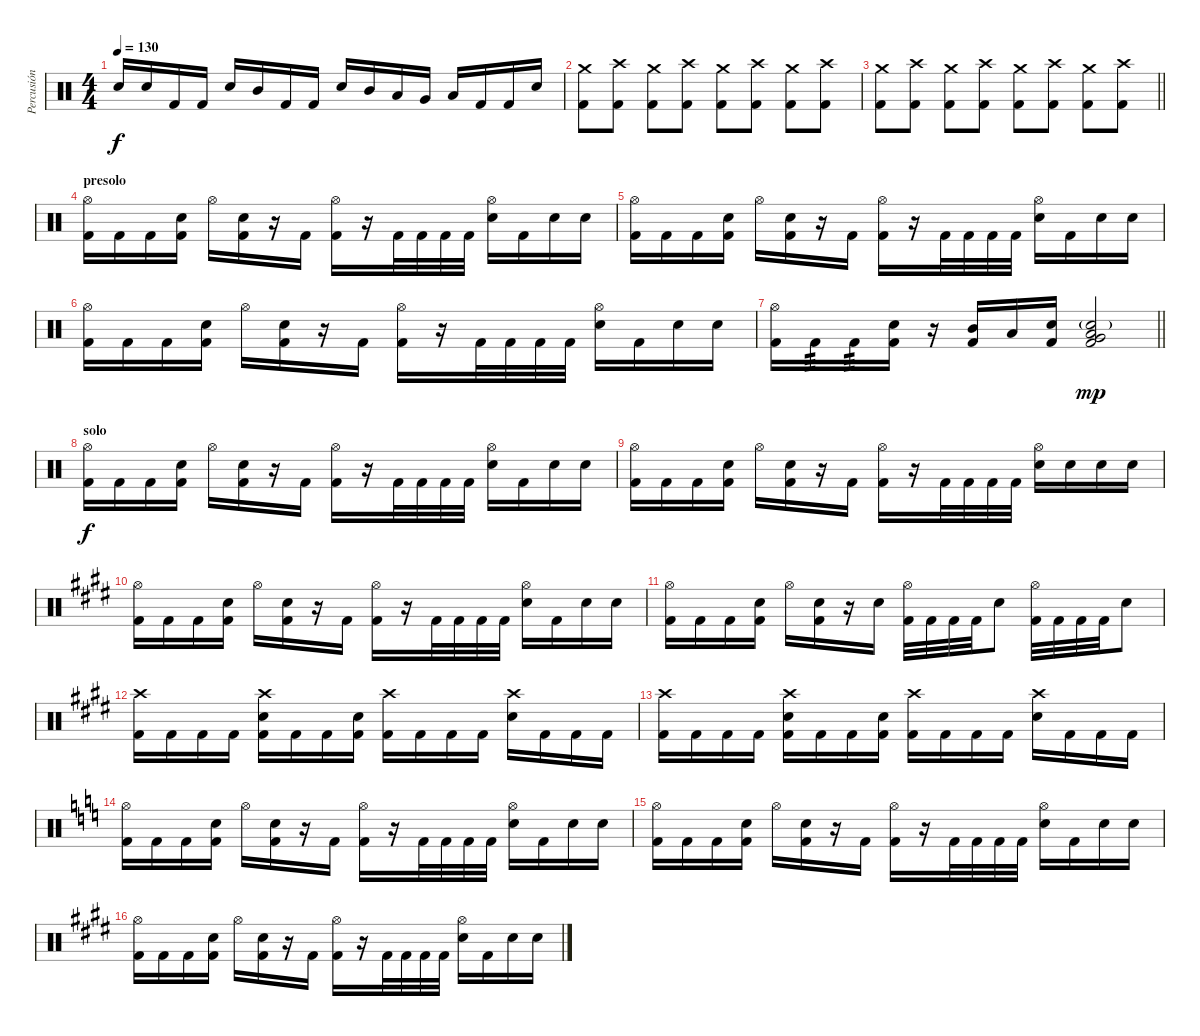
\track ("Percusión" "Percusión") {instrument percussion}
\staff {score}
\articulation defaults
\ts (4 4)
\tempo 130
\clef neutral
\ks c "Electric Snare (hit)".16{dy f} "Electric Snare (hit)".16 "Kick (hit) 2".16 "Kick (hit) 2".16 "Electric Snare (hit)".16 "Mid Tom (hit)".16 "Kick (hit) 2".16 "Kick (hit) 2".16 "Electric Snare (hit)".16 "Mid Tom (hit)".16 "Low Tom (hit)".16 "Very Low Tom (hit)".16 "Low Floor Tom (hit)".16 "Kick (hit) 2".16 "Kick (hit) 2".16 "Electric Snare (hit)".16
|
("Crash medium (hit)" "Kick (hit) 2").8 ("Crash high (hit)" "Kick (hit) 2").8 ("Crash medium (hit)" "Kick (hit) 2").8 ("Crash high (hit)" "Kick (hit) 2").8 ("Crash medium (hit)" "Kick (hit) 2").8 ("Crash high (hit)" "Kick (hit) 2").8 ("Crash medium (hit)" "Kick (hit) 2").8 ("Crash high (hit)" "Kick (hit) 2").8 |
\barLineRight lightlight
("Crash medium (hit)" "Kick (hit) 2").8 ("Crash high (hit)" "Kick (hit) 2").8 ("Crash medium (hit)" "Kick (hit) 2").8 ("Crash high (hit)" "Kick (hit) 2").8 ("Crash medium (hit)" "Kick (hit) 2").8 ("Crash high (hit)" "Kick (hit) 2").8 ("Crash medium (hit)" "Kick (hit) 2").8 ("Crash high (hit)" "Kick (hit) 2").8 |
\section ("" "presolo")
("Hi-Hat (open)" "Kick (hit) 2").16 "Kick (hit) 2".16 "Kick (hit) 2".16 ("Electric Snare (hit)" "Kick (hit) 2").16 "Hi-Hat (open)".16 ("Electric Snare (hit)" "Kick (hit) 2").16 r.16 "Kick (hit) 2".16 ("Hi-Hat (open)" "Kick (hit) 2").16 r.16 "Kick (hit) 2".32 "Kick (hit) 2".32 "Kick (hit) 2".32 "Kick (hit) 2".32 ("Hi-Hat (open)" "Electric Snare (hit)").16 "Kick (hit) 2".16 "Electric Snare (hit)".16 "Electric Snare (hit)".16 |
("Hi-Hat (open)" "Kick (hit) 2").16 "Kick (hit) 2".16 "Kick (hit) 2".16 ("Electric Snare (hit)" "Kick (hit) 2").16 "Hi-Hat (open)".16 ("Electric Snare (hit)" "Kick (hit) 2").16 r.16 "Kick (hit) 2".16 ("Hi-Hat (open)" "Kick (hit) 2").16 r.16 "Kick (hit) 2".32 "Kick (hit) 2".32 "Kick (hit) 2".32 "Kick (hit) 2".32 ("Hi-Hat (open)" "Electric Snare (hit)").16 "Kick (hit) 2".16 "Electric Snare (hit)".16 "Electric Snare (hit)".16 |
("Hi-Hat (open)" "Kick (hit) 2").16 "Kick (hit) 2".16 "Kick (hit) 2".16 ("Electric Snare (hit)" "Kick (hit) 2").16 "Hi-Hat (open)".16 ("Electric Snare (hit)" "Kick (hit) 2").16 r.16 "Kick (hit) 2".16 ("Hi-Hat (open)" "Kick (hit) 2").16 r.16 "Kick (hit) 2".32 "Kick (hit) 2".32 "Kick (hit) 2".32 "Kick (hit) 2".32 ("Hi-Hat (open)" "Electric Snare (hit)").16 "Kick (hit) 2".16 "Electric Snare (hit)".16 "Electric Snare (hit)".16 |
\barLineRight lightlight
("Hi-Hat (open)" "Kick (hit) 2").16 "Kick (hit) 2".16{tp 3} "Kick (hit) 2".16{tp 3} ("Electric Snare (hit)" "Kick (hit) 2").16 r.16 ("Mid Tom (hit)" "Kick (hit) 2").16 "Low Tom (hit)".16 ("Snare (hit)" "Kick (hit) 2").16 ("Electric Snare (hit)"{g} "Low Tom (hit)" "Kick (hit) 2" "Very Low Tom (hit)").2{dy mp} |
\section ("" "solo")
("Hi-Hat (open)" "Kick (hit) 2").16{dy f} "Kick (hit) 2".16 "Kick (hit) 2".16 ("Electric Snare (hit)" "Kick (hit) 2").16 "Hi-Hat (open)".16 ("Electric Snare (hit)" "Kick (hit) 2").16 r.16 "Kick (hit) 2".16 ("Hi-Hat (open)" "Kick (hit) 2").16 r.16 "Kick (hit) 2".32 "Kick (hit) 2".32 "Kick (hit) 2".32 "Kick (hit) 2".32 ("Hi-Hat (open)" "Electric Snare (hit)").16 "Kick (hit) 2".16 "Electric Snare (hit)".16 "Electric Snare (hit)".16 |
("Hi-Hat (open)" "Kick (hit) 2").16 "Kick (hit) 2".16 "Kick (hit) 2".16 ("Electric Snare (hit)" "Kick (hit) 2").16 "Hi-Hat (open)".16 ("Electric Snare (hit)" "Kick (hit) 2").16 r.16 "Kick (hit) 2".16 ("Hi-Hat (open)" "Kick (hit) 2").16 r.16 "Kick (hit) 2".32 "Kick (hit) 2".32 "Kick (hit) 2".32 "Kick (hit) 2".32 ("Hi-Hat (open)" "Electric Snare (hit)").16 "Electric Snare (hit)".16 "Electric Snare (hit)".16 "Electric Snare (hit)".16 |
\ks c#minor
("Hi-Hat (open)" "Kick (hit) 2").16 "Kick (hit) 2".16 "Kick (hit) 2".16 ("Electric Snare (hit)" "Kick (hit) 2").16 "Hi-Hat (open)".16 ("Electric Snare (hit)" "Kick (hit) 2").16 r.16 "Kick (hit) 2".16 ("Hi-Hat (open)" "Kick (hit) 2").16 r.16 "Kick (hit) 2".32 "Kick (hit) 2".32 "Kick (hit) 2".32 "Kick (hit) 2".32 ("Hi-Hat (open)" "Electric Snare (hit)").16 "Kick (hit) 2".16 "Electric Snare (hit)".16 "Electric Snare (hit)".16 |
("Hi-Hat (open)" "Kick (hit) 2").16 "Kick (hit) 2".16 "Kick (hit) 2".16 ("Electric Snare (hit)" "Kick (hit) 2").16 "Hi-Hat (open)".16 ("Electric Snare (hit)" "Kick (hit) 2").16 r.16 "Electric Snare (hit)".16 ("Hi-Hat (open)" "Kick (hit) 2").32 "Kick (hit) 2".32 "Kick (hit) 2".32 "Kick (hit) 2".32 "Electric Snare (hit)".8 ("Hi-Hat (open)" "Kick (hit) 2").32 "Kick (hit) 2".32 "Kick (hit) 2".32 "Kick (hit) 2".32 "Electric Snare (hit)".8 |
("Crash high (hit)" "Kick (hit) 2").16 "Kick (hit) 2".16 "Kick (hit) 2".16 "Kick (hit) 2".16 ("Electric Snare (hit)" "Crash high (hit)" "Kick (hit) 2").16 "Kick (hit) 2".16 "Kick (hit) 2".16 ("Snare (hit)" "Kick (hit) 2").16 ("Crash high (hit)" "Kick (hit) 2").16 "Kick (hit) 2".16 "Kick (hit) 2".16 "Kick (hit) 2".16 ("Crash high (hit)" "Electric Snare (hit)").16 "Kick (hit) 2".16 "Kick (hit) 2".16 "Kick (hit) 2".16 |
("Crash high (hit)" "Kick (hit) 2").16 "Kick (hit) 2".16 "Kick (hit) 2".16 "Kick (hit) 2".16 ("Electric Snare (hit)" "Crash high (hit)" "Kick (hit) 2").16 "Kick (hit) 2".16 "Kick (hit) 2".16 ("Snare (hit)" "Kick (hit) 2").16 ("Crash high (hit)" "Kick (hit) 2").16 "Kick (hit) 2".16 "Kick (hit) 2".16 "Kick (hit) 2".16 ("Crash high (hit)" "Electric Snare (hit)").16 "Kick (hit) 2".16 "Kick (hit) 2".16 "Kick (hit) 2".16 |
\ks c
("Hi-Hat (open)" "Kick (hit) 2").16 "Kick (hit) 2".16 "Kick (hit) 2".16 ("Electric Snare (hit)" "Kick (hit) 2").16 "Hi-Hat (open)".16 ("Electric Snare (hit)" "Kick (hit) 2").16 r.16 "Kick (hit) 2".16 ("Hi-Hat (open)" "Kick (hit) 2").16 r.16 "Kick (hit) 2".32 "Kick (hit) 2".32 "Kick (hit) 2".32 "Kick (hit) 2".32 ("Hi-Hat (open)" "Electric Snare (hit)").16 "Kick (hit) 2".16 "Electric Snare (hit)".16 "Electric Snare (hit)".16 |
("Hi-Hat (open)" "Kick (hit) 2").16 "Kick (hit) 2".16 "Kick (hit) 2".16 ("Electric Snare (hit)" "Kick (hit) 2").16 "Hi-Hat (open)".16 ("Electric Snare (hit)" "Kick (hit) 2").16 r.16 "Kick (hit) 2".16 ("Hi-Hat (open)" "Kick (hit) 2").16 r.16 "Kick (hit) 2".32 "Kick (hit) 2".32 "Kick (hit) 2".32 "Kick (hit) 2".32 ("Hi-Hat (open)" "Electric Snare (hit)").16 "Kick (hit) 2".16 "Electric Snare (hit)".16 "Electric Snare (hit)".16 |
\ks c#minor
("Hi-Hat (open)" "Kick (hit) 2").16 "Kick (hit) 2".16 "Kick (hit) 2".16 ("Electric Snare (hit)" "Kick (hit) 2").16 "Hi-Hat (open)".16 ("Electric Snare (hit)" "Kick (hit) 2").16 r.16 "Kick (hit) 2".16 ("Hi-Hat (open)" "Kick (hit) 2").16 r.16 "Kick (hit) 2".32 "Kick (hit) 2".32 "Kick (hit) 2".32 "Kick (hit) 2".32 ("Hi-Hat (open)" "Electric Snare (hit)").16 "Kick (hit) 2".16 "Electric Snare (hit)".16 "Electric Snare (hit)".16
